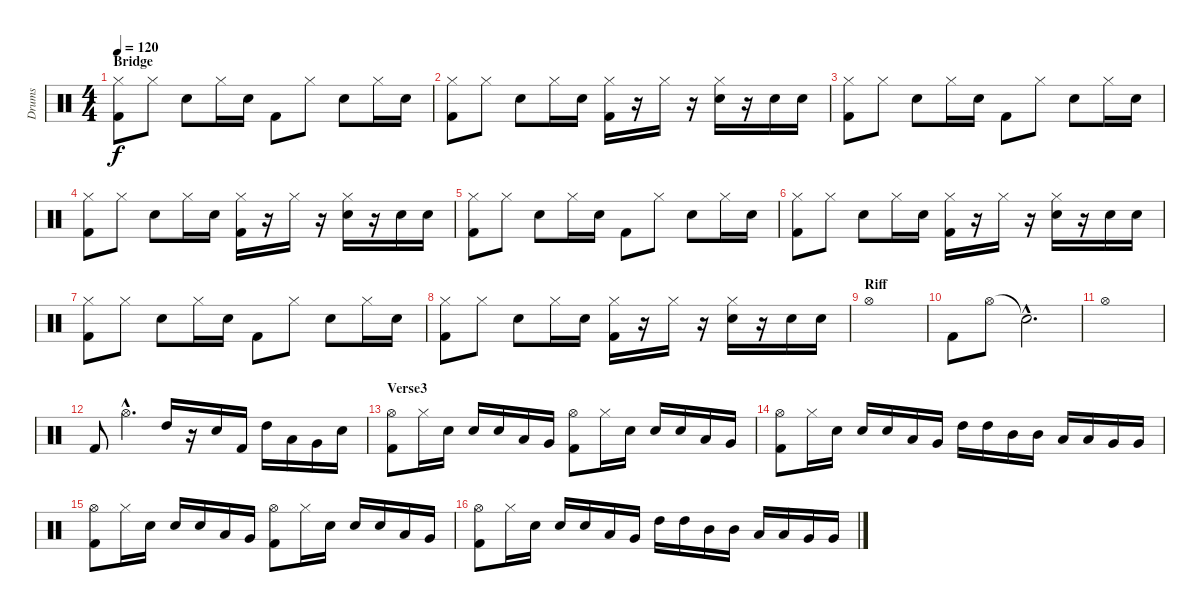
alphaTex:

\track ("Drums" "Drums") {instrument percussion}
\staff {score}
\articulation defaults
\ts (4 4)
\section ("" "Bridge")
\tempo 120
\clef neutral
\ks c
("Hi-Hat (closed)" "Kick (hit) 2").8{dy f} "Hi-Hat (closed)".8 "Electric Snare (hit)".8 "Hi-Hat (closed)".16 "Electric Snare (hit)".16 "Kick (hit) 2".8 "Hi-Hat (closed)".8 "Electric Snare (hit)".8 "Hi-Hat (closed)".16 "Electric Snare (hit)".16 |
("Hi-Hat (closed)" "Kick (hit) 2").8 "Hi-Hat (closed)".8 "Electric Snare (hit)".8 "Hi-Hat (closed)".16 "Electric Snare (hit)".16 ("Hi-Hat (closed)" "Kick (hit) 2").16 r.16 "Hi-Hat (closed)".16 r.16 ("Hi-Hat (closed)" "Electric Snare (hit)").16 r.16 "Electric Snare (hit)".16 "Electric Snare (hit)".16 |
("Hi-Hat (closed)" "Kick (hit) 2").8 "Hi-Hat (closed)".8 "Electric Snare (hit)".8 "Hi-Hat (closed)".16 "Electric Snare (hit)".16 "Kick (hit) 2".8 "Hi-Hat (closed)".8 "Electric Snare (hit)".8 "Hi-Hat (closed)".16 "Electric Snare (hit)".16 |
("Hi-Hat (closed)" "Kick (hit) 2").8 "Hi-Hat (closed)".8 "Electric Snare (hit)".8 "Hi-Hat (closed)".16 "Electric Snare (hit)".16 ("Hi-Hat (closed)" "Kick (hit) 2").16 r.16 "Hi-Hat (closed)".16 r.16 ("Hi-Hat (closed)" "Electric Snare (hit)").16 r.16 "Electric Snare (hit)".16 "Electric Snare (hit)".16 |
("Hi-Hat (closed)" "Kick (hit) 2").8 "Hi-Hat (closed)".8 "Electric Snare (hit)".8 "Hi-Hat (closed)".16 "Electric Snare (hit)".16 "Kick (hit) 2".8 "Hi-Hat (closed)".8 "Electric Snare (hit)".8 "Hi-Hat (closed)".16 "Electric Snare (hit)".16 |
("Hi-Hat (closed)" "Kick (hit) 2").8 "Hi-Hat (closed)".8 "Electric Snare (hit)".8 "Hi-Hat (closed)".16 "Electric Snare (hit)".16 ("Hi-Hat (closed)" "Kick (hit) 2").16 r.16 "Hi-Hat (closed)".16 r.16 ("Hi-Hat (closed)" "Electric Snare (hit)").16 r.16 "Electric Snare (hit)".16 "Electric Snare (hit)".16 |
("Hi-Hat (closed)" "Kick (hit) 2").8 "Hi-Hat (closed)".8 "Electric Snare (hit)".8 "Hi-Hat (closed)".16 "Electric Snare (hit)".16 "Kick (hit) 2".8 "Hi-Hat (closed)".8 "Electric Snare (hit)".8 "Hi-Hat (closed)".16 "Electric Snare (hit)".16 |
("Hi-Hat (closed)" "Kick (hit) 2").8 "Hi-Hat (closed)".8 "Electric Snare (hit)".8 "Hi-Hat (closed)".16 "Electric Snare (hit)".16 ("Hi-Hat (closed)" "Kick (hit) 2").16 r.16 "Hi-Hat (closed)".16 r.16 ("Hi-Hat (closed)" "Electric Snare (hit)").16 r.16 "Electric Snare (hit)".16 "Electric Snare (hit)".16 |
\section ("" "Riff")
"Hi-Hat (open)".1 |
"Kick (hit) 2".8 "Hi-Hat (open)".8 "Snare (hit)"{hac t}.2{d} |
"Hi-Hat (open)".1 |
"Kick (hit) 2".8 "Hi-Hat (open)"{hac}.4{d} "High Tom (hit)".16 r.16 "Electric Snare (hit)".16 "Kick (hit) 2".16 "High Tom (hit)".16 "Low Tom (hit)".16 "Very Low Tom (hit)".16 "Electric Snare (hit)".16 |
\section ("" "Verse3")
("Hi-Hat (open)" "Kick (hit) 2").8 "Hi-Hat (closed)".16 "Electric Snare (hit)".16 "Electric Snare (hit)".16 "Electric Snare (hit)".16 "Low Floor Tom (hit)".16 "Very Low Tom (hit)".16 ("Hi-Hat (open)" "Kick (hit) 2").8 "Hi-Hat (closed)".16 "Electric Snare (hit)".16 "Electric Snare (hit)".16 "Electric Snare (hit)".16 "Low Floor Tom (hit)".16 "Very Low Tom (hit)".16 |
("Hi-Hat (open)" "Kick (hit) 2").8 "Hi-Hat (closed)".16 "Electric Snare (hit)".16 "Electric Snare (hit)".16 "Electric Snare (hit)".16 "Low Floor Tom (hit)".16 "Very Low Tom (hit)".16 "High Tom (hit)".16 "High Tom (hit)".16 "Mid Tom (hit)".16 "Mid Tom (hit)".16 "Low Tom (hit)".16 "Low Tom (hit)".16 "Very Low Tom (hit)".16 "Very Low Tom (hit)".16 |
("Hi-Hat (open)" "Kick (hit) 2").8 "Hi-Hat (closed)".16 "Electric Snare (hit)".16 "Electric Snare (hit)".16 "Electric Snare (hit)".16 "Low Floor Tom (hit)".16 "Very Low Tom (hit)".16 ("Hi-Hat (open)" "Kick (hit) 2").8 "Hi-Hat (closed)".16 "Electric Snare (hit)".16 "Electric Snare (hit)".16 "Electric Snare (hit)".16 "Low Floor Tom (hit)".16 "Very Low Tom (hit)".16 |
("Hi-Hat (open)" "Kick (hit) 2").8 "Hi-Hat (closed)".16 "Electric Snare (hit)".16 "Electric Snare (hit)".16 "Electric Snare (hit)".16 "Low Floor Tom (hit)".16 "Very Low Tom (hit)".16 "High Tom (hit)".16 "High Tom (hit)".16 "Mid Tom (hit)".16 "Mid Tom (hit)".16 "Low Tom (hit)".16 "Low Tom (hit)".16 "Very Low Tom (hit)".16 "Very Low Tom (hit)".16
